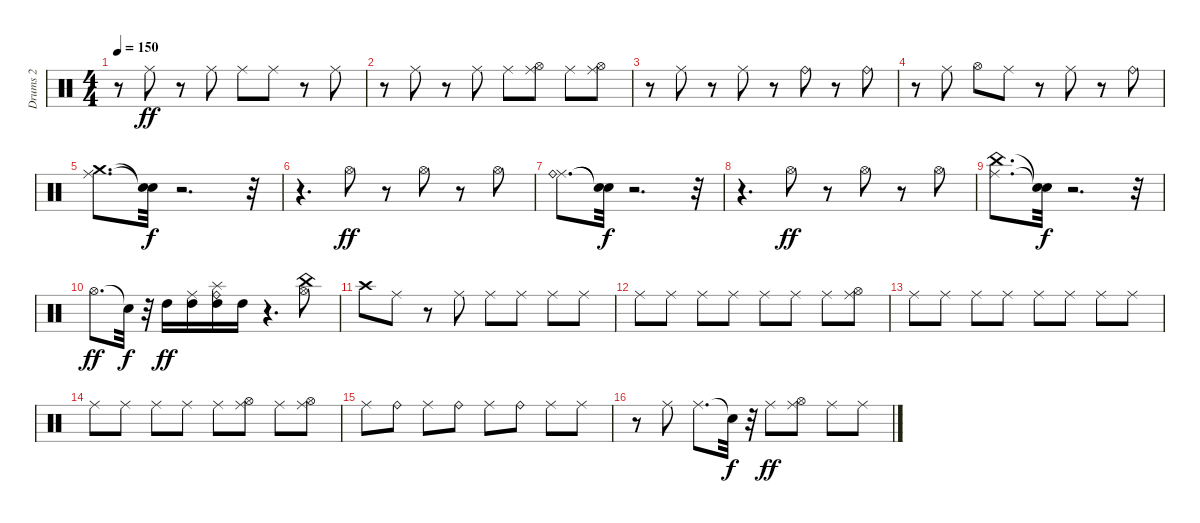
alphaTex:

\track ("Drums 2" "Drums 2") {instrument percussion}
\staff {score}
\articulation defaults
\ts (4 4)
\tempo 150
\clef neutral
\ks c
r.8{dy ff} "Ride (middle)".8 r.8 "Ride (middle)".8 "Ride (middle)".8 "Ride (middle)".8 r.8 "Ride (middle)".8 |
r.8 "Ride (middle)".8 r.8 "Ride (middle)".8 "Ride (middle)".8 ("Hi-Hat (open)" "Ride (middle)").8 "Ride (middle)".8 ("Hi-Hat (open)" "Ride (middle)").8 |
r.8 "Ride (middle)".8 r.8 "Ride (middle)".8 r.8 "Ride (bell)".8 r.8 "Ride (bell)".8 |
r.8 "Ride (middle)".8 "Hi-Hat (open)".8 "Ride (middle)".8 r.8 "Ride (middle)".8 r.8 "Ride (bell)".8 |
("Ride (middle)" "Crash medium (hit)").8{d} ("Snare (hit)"{t} "Snare (hit)"{t}).32{dy f} r.2{d} r.32 |
r.4{d} "Hi-Hat (open)".8{dy ff} r.8 "Hi-Hat (open)".8 r.8 "Hi-Hat (open)".8 |
("Ride (middle)" "Ride (bell)").8{d} ("Snare (hit)"{t} "Snare (hit)"{t}).32{dy f} r.2{d} r.32 |
r.4{d} "Hi-Hat (open)".8{dy ff} r.8 "Hi-Hat (open)".8 r.8 "Hi-Hat (open)".8 |
("Ride (middle)" "China (hit)").8{d} ("Snare (hit)"{t} "Snare (hit)"{t}).32{dy f} r.2{d} r.32 |
"Hi-Hat (open)".8{d dy ff} "Snare (hit)"{t}.32{dy f} r.32 "High Tom (hit)".16{dy ff} ("High Tom (hit)" "Ride (middle)").16 ("High Tom (hit)" "Ride (bell)" "Splash (hit)").16 "High Tom (hit)".16 r.4{d} ("Hi-Hat (open)" "China (hit)").8 |
"Crash high (hit)".8 "Ride (middle)".8 r.8 "Ride (middle)".8 "Ride (middle)".8 "Ride (middle)".8 "Ride (middle)".8 "Ride (middle)".8 |
"Ride (middle)".8 "Ride (middle)".8 "Ride (middle)".8 "Ride (middle)".8 "Ride (middle)".8 "Ride (middle)".8 "Ride (middle)".8 ("Hi-Hat (open)" "Ride (middle)").8 |
"Ride (middle)".8 "Ride (middle)".8 "Ride (middle)".8 "Ride (middle)".8 "Ride (middle)".8 "Ride (middle)".8 "Ride (middle)".8 "Ride (middle)".8 |
"Ride (middle)".8 "Ride (middle)".8 "Ride (middle)".8 "Ride (middle)".8 "Ride (middle)".8 ("Hi-Hat (open)" "Ride (middle)").8 "Ride (middle)".8 ("Hi-Hat (open)" "Ride (middle)").8 |
"Ride (middle)".8 "Ride (bell)".8 "Ride (middle)".8 "Ride (bell)".8 "Ride (middle)".8 "Ride (bell)".8 "Ride (middle)".8 "Ride (middle)".8 |
r.8 "Ride (middle)".8 "Ride (middle)".8{d} "Snare (hit)"{t}.32{dy f} r.32 "Ride (middle)".8{dy ff} ("Hi-Hat (open)" "Ride (middle)").8 "Ride (middle)".8 "Ride (middle)".8
